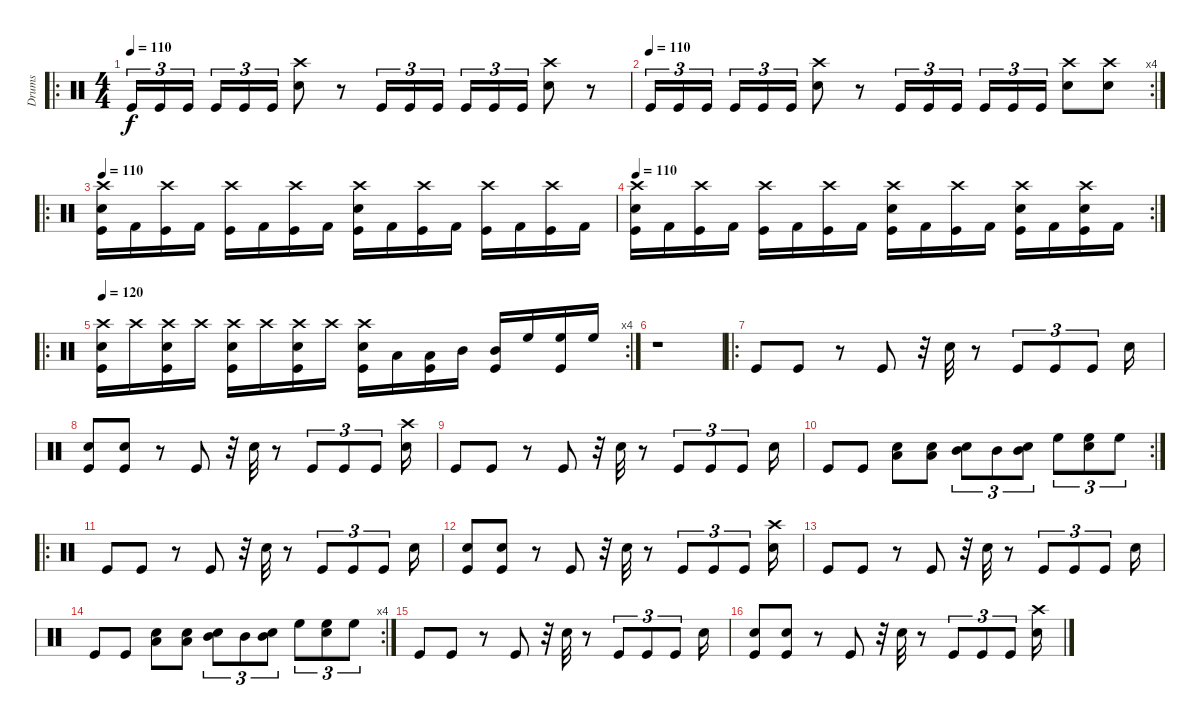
\track ("Drums" "Drums") {instrument percussion}
\staff {score}
\articulation defaults
\ro
\ts (4 4)
\tempo 110
\clef neutral
\ks c "Kick (hit)".16{tu (3 2) dy f} "Kick (hit)".16{tu (3 2)} "Kick (hit)".16{tu (3 2)} "Kick (hit)".16{tu (3 2)} "Kick (hit)".16{tu (3 2)} "Kick (hit)".16{tu (3 2)}
("Snare (hit) 2" "Crash high (hit)").8 r.8 "Kick (hit)".16{tu (3 2)} "Kick (hit)".16{tu (3 2)} "Kick (hit)".16{tu (3 2)} "Kick (hit)".16{tu (3 2)} "Kick (hit)".16{tu (3 2)} "Kick (hit)".16{tu (3 2)} ("Snare (hit) 2" "Crash high (hit)").8 r.8 |
\rc 4
\tempo (110)
"Kick (hit)".16{tu (3 2)} "Kick (hit)".16{tu (3 2)} "Kick (hit)".16{tu (3 2)} "Kick (hit)".16{tu (3 2)} "Kick (hit)".16{tu (3 2)} "Kick (hit)".16{tu (3 2)} ("Snare (hit) 2" "Crash high (hit)").8 r.8 "Kick (hit)".16{tu (3 2)} "Kick (hit)".16{tu (3 2)} "Kick (hit)".16{tu (3 2)} "Kick (hit)".16{tu (3 2)} "Kick (hit)".16{tu (3 2)} "Kick (hit)".16{tu (3 2)} ("Snare (hit) 2" "Crash high (hit)").8 ("Snare (hit) 2" "Crash high (hit)").8 |
\ro
\tempo 110
("Kick (hit)" "Snare (hit) 2" "Crash high (hit)").16 "Kick (hit) 2".16 ("Kick (hit)" "Crash high (hit)").16 "Kick (hit) 2".16 ("Kick (hit)" "Crash high (hit)").16 "Kick (hit) 2".16 ("Kick (hit)" "Crash high (hit)").16 "Kick (hit) 2".16 ("Kick (hit)" "Snare (hit) 2" "Crash high (hit)").16 "Kick (hit) 2".16 ("Kick (hit)" "Crash high (hit)").16 "Kick (hit) 2".16 ("Kick (hit)" "Crash high (hit)").16 "Kick (hit) 2".16 ("Kick (hit)" "Crash high (hit)").16 "Kick (hit) 2".16 |
\rc 2
\tempo 110
("Kick (hit)" "Snare (hit) 2" "Crash high (hit)").16 "Kick (hit) 2".16 ("Kick (hit)" "Crash high (hit)").16 "Kick (hit) 2".16 ("Kick (hit)" "Crash high (hit)").16 "Kick (hit) 2".16 ("Kick (hit)" "Crash high (hit)").16 "Kick (hit) 2".16 ("Kick (hit)" "Snare (hit) 2" "Crash high (hit)").16 "Kick (hit) 2".16 ("Kick (hit)" "Crash high (hit)").16 "Kick (hit) 2".16 ("Kick (hit)" "Snare (hit) 2" "Crash high (hit)").16 "Kick (hit) 2".16 ("Kick (hit)" "Snare (hit) 2" "Crash high (hit)").16 "Kick (hit) 2".16 |
\ro
\rc 4
\tempo 120
("Kick (hit)" "Snare (hit) 2" "Crash high (hit)").16 "Crash high (hit)".16 ("Kick (hit)" "Snare (hit) 2" "Crash high (hit)").16 "Crash high (hit)".16 ("Kick (hit)" "Snare (hit) 2" "Crash high (hit)").16 "Crash high (hit)".16 ("Kick (hit)" "Snare (hit) 2" "Crash high (hit)").16 "Crash high (hit)".16 ("Kick (hit)" "Snare (hit) 2" "Crash high (hit)").16 "Low Tom (hit)".16 ("Kick (hit)" "Low Tom (hit)").16 "Mid Tom (hit)".16 ("Kick (hit)" "Mid Tom (hit)").16 "High Floor Tom (hit)".16 ("Kick (hit)" "High Floor Tom (hit)").16 "High Floor Tom (hit)".16 |
r.1 |
\ro "Kick (hit)".8 "Kick (hit)".8
r.8 "Kick (hit)".8 r.32 "Snare (hit) 2".32 r.8 "Kick (hit)".8{tu (3 2)} "Kick (hit)".8{tu (3 2)} "Kick (hit)".8{tu (3 2)} "Snare (hit) 2".16 |
("Kick (hit)" "Snare (hit) 2").8 ("Kick (hit)" "Snare (hit) 2").8 r.8 "Kick (hit)".8 r.32 "Snare (hit) 2".32 r.8 "Kick (hit)".8{tu (3 2)} "Kick (hit)".8{tu (3 2)} "Kick (hit)".8{tu (3 2)} ("Snare (hit) 2" "Crash high (hit)").16 |
"Kick (hit)".8 "Kick (hit)".8 r.8 "Kick (hit)".8 r.32 "Snare (hit) 2".32 r.8 "Kick (hit)".8{tu (3 2)} "Kick (hit)".8{tu (3 2)} "Kick (hit)".8{tu (3 2)} "Snare (hit) 2".16 |
\rc 2 "Kick (hit)".8 "Kick (hit)".8
("Low Tom (hit)" "Snare (hit) 2").8 ("Low Tom (hit)" "Snare (hit) 2").8 ("Mid Tom (hit)" "Snare (hit) 2").8{tu (3 2)} "Mid Tom (hit)".8{tu (3 2)} ("Mid Tom (hit)" "Snare (hit) 2").8{tu (3 2)} "High Floor Tom (hit)".8{tu (3 2)} ("High Floor Tom (hit)" "Snare (hit) 2").8{tu (3 2)} "High Floor Tom (hit)".8{tu (3 2)} |
\ro "Kick (hit)".8 "Kick (hit)".8
r.8 "Kick (hit)".8 r.32 "Snare (hit) 2".32 r.8 "Kick (hit)".8{tu (3 2)} "Kick (hit)".8{tu (3 2)} "Kick (hit)".8{tu (3 2)} "Snare (hit) 2".16 |
("Kick (hit)" "Snare (hit) 2").8 ("Kick (hit)" "Snare (hit) 2").8 r.8 "Kick (hit)".8 r.32 "Snare (hit) 2".32 r.8 "Kick (hit)".8{tu (3 2)} "Kick (hit)".8{tu (3 2)} "Kick (hit)".8{tu (3 2)} ("Snare (hit) 2" "Crash high (hit)").16 |
"Kick (hit)".8 "Kick (hit)".8 r.8 "Kick (hit)".8 r.32 "Snare (hit) 2".32 r.8 "Kick (hit)".8{tu (3 2)} "Kick (hit)".8{tu (3 2)} "Kick (hit)".8{tu (3 2)} "Snare (hit) 2".16 |
\rc 4 "Kick (hit)".8 "Kick (hit)".8
("Low Tom (hit)" "Snare (hit) 2").8 ("Low Tom (hit)" "Snare (hit) 2").8 ("Mid Tom (hit)" "Snare (hit) 2").8{tu (3 2)} "Mid Tom (hit)".8{tu (3 2)} ("Mid Tom (hit)" "Snare (hit) 2").8{tu (3 2)} "High Floor Tom (hit)".8{tu (3 2)} ("High Floor Tom (hit)" "Snare (hit) 2").8{tu (3 2)} "High Floor Tom (hit)".8{tu (3 2)} |
"Kick (hit)".8 "Kick (hit)".8 r.8 "Kick (hit)".8 r.32 "Snare (hit) 2".32 r.8 "Kick (hit)".8{tu (3 2)} "Kick (hit)".8{tu (3 2)} "Kick (hit)".8{tu (3 2)} "Snare (hit) 2".16 |
("Kick (hit)" "Snare (hit) 2").8 ("Kick (hit)" "Snare (hit) 2").8 r.8 "Kick (hit)".8 r.32 "Snare (hit) 2".32 r.8 "Kick (hit)".8{tu (3 2)} "Kick (hit)".8{tu (3 2)} "Kick (hit)".8{tu (3 2)} ("Snare (hit) 2" "Crash high (hit)").16
